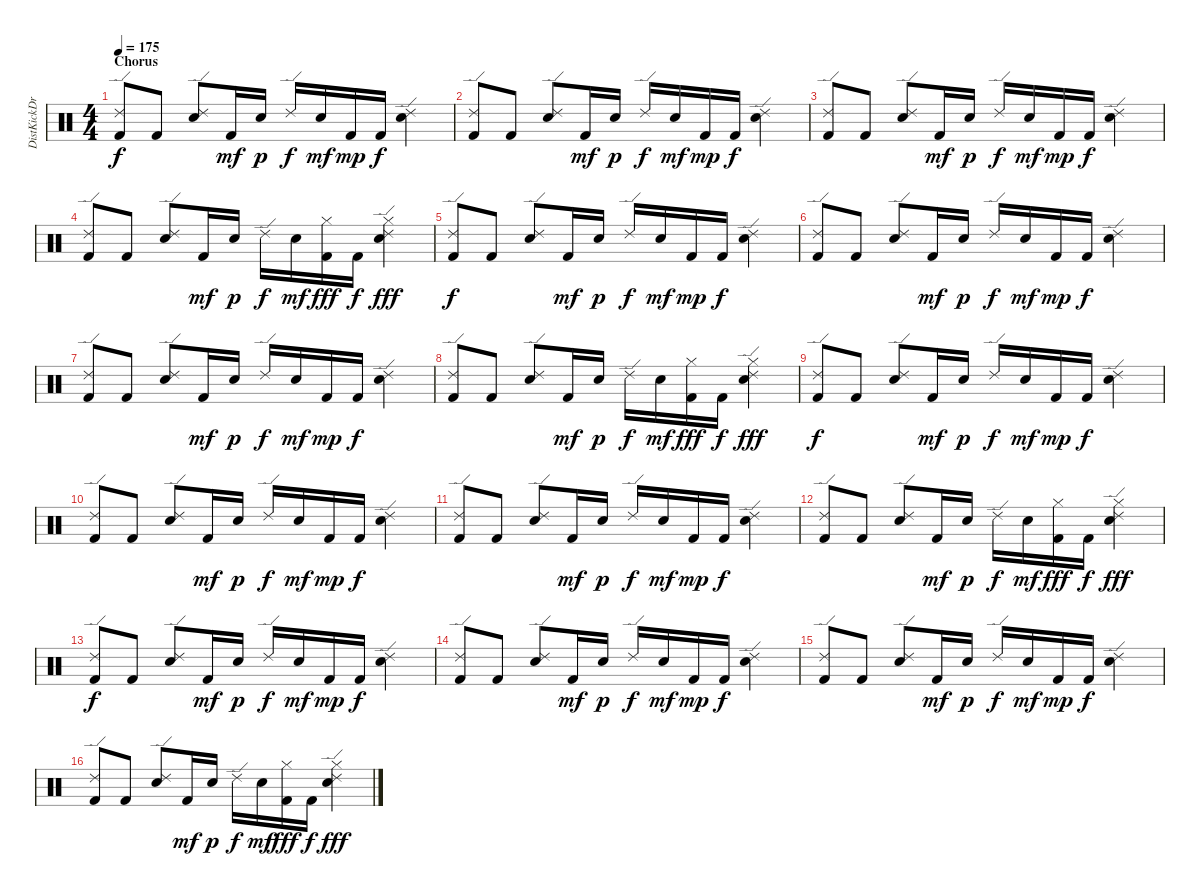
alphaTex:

\track ("DistKickDrums" "DistKickDr") {instrument percussion}
\staff {score}
\articulation defaults
\ts (4 4)
\section ("" "Chorus")
\tempo 175
\clef neutral
\ks c
("Kick (hit) 2" "Ride (edge) 2").8{dy f} "Kick (hit) 2".8 ("Snare (hit) 2" "Ride (edge) 2").8 "Kick (hit) 2".16{dy mf} "Snare (hit) 2".16{dy p} "Ride (edge) 2".16{dy f} "Snare (hit) 2".16{dy mf} "Kick (hit) 2".16{dy mp} "Kick (hit) 2".16{dy f} ("Snare (hit) 2" "Ride (edge) 2").4 |
("Kick (hit) 2" "Ride (edge) 2").8 "Kick (hit) 2".8 ("Snare (hit) 2" "Ride (edge) 2").8 "Kick (hit) 2".16{dy mf} "Snare (hit) 2".16{dy p} "Ride (edge) 2".16{dy f} "Snare (hit) 2".16{dy mf} "Kick (hit) 2".16{dy mp} "Kick (hit) 2".16{dy f} ("Snare (hit) 2" "Ride (edge) 2").4 |
("Kick (hit) 2" "Ride (edge) 2").8 "Kick (hit) 2".8 ("Snare (hit) 2" "Ride (edge) 2").8 "Kick (hit) 2".16{dy mf} "Snare (hit) 2".16{dy p} "Ride (edge) 2".16{dy f} "Snare (hit) 2".16{dy mf} "Kick (hit) 2".16{dy mp} "Kick (hit) 2".16{dy f} ("Snare (hit) 2" "Ride (edge) 2").4 |
("Kick (hit) 2" "Ride (edge) 2").8 "Kick (hit) 2".8 ("Snare (hit) 2" "Ride (edge) 2").8 "Kick (hit) 2".16{dy mf} "Snare (hit) 2".16{dy p} "Ride (edge) 2".16{dy f} "Snare (hit) 2".16{dy mf} ("Kick (hit) 2" "Cowbell high (tip)").16{dy fff} "Kick (hit) 2".16{dy f} ("Snare (hit) 2" "Ride (edge) 2" "Cowbell high (tip)").4{dy fff} |
("Kick (hit) 2" "Ride (edge) 2").8{dy f} "Kick (hit) 2".8 ("Snare (hit) 2" "Ride (edge) 2").8 "Kick (hit) 2".16{dy mf} "Snare (hit) 2".16{dy p} "Ride (edge) 2".16{dy f} "Snare (hit) 2".16{dy mf} "Kick (hit) 2".16{dy mp} "Kick (hit) 2".16{dy f} ("Snare (hit) 2" "Ride (edge) 2").4 |
("Kick (hit) 2" "Ride (edge) 2").8 "Kick (hit) 2".8 ("Snare (hit) 2" "Ride (edge) 2").8 "Kick (hit) 2".16{dy mf} "Snare (hit) 2".16{dy p} "Ride (edge) 2".16{dy f} "Snare (hit) 2".16{dy mf} "Kick (hit) 2".16{dy mp} "Kick (hit) 2".16{dy f} ("Snare (hit) 2" "Ride (edge) 2").4 |
("Kick (hit) 2" "Ride (edge) 2").8 "Kick (hit) 2".8 ("Snare (hit) 2" "Ride (edge) 2").8 "Kick (hit) 2".16{dy mf} "Snare (hit) 2".16{dy p} "Ride (edge) 2".16{dy f} "Snare (hit) 2".16{dy mf} "Kick (hit) 2".16{dy mp} "Kick (hit) 2".16{dy f} ("Snare (hit) 2" "Ride (edge) 2").4 |
("Kick (hit) 2" "Ride (edge) 2").8 "Kick (hit) 2".8 ("Snare (hit) 2" "Ride (edge) 2").8 "Kick (hit) 2".16{dy mf} "Snare (hit) 2".16{dy p} "Ride (edge) 2".16{dy f} "Snare (hit) 2".16{dy mf} ("Kick (hit) 2" "Cowbell high (tip)").16{dy fff} "Kick (hit) 2".16{dy f} ("Snare (hit) 2" "Ride (edge) 2" "Cowbell high (tip)").4{dy fff} |
("Kick (hit) 2" "Ride (edge) 2").8{dy f} "Kick (hit) 2".8 ("Snare (hit) 2" "Ride (edge) 2").8 "Kick (hit) 2".16{dy mf} "Snare (hit) 2".16{dy p} "Ride (edge) 2".16{dy f} "Snare (hit) 2".16{dy mf} "Kick (hit) 2".16{dy mp} "Kick (hit) 2".16{dy f} ("Snare (hit) 2" "Ride (edge) 2").4 |
("Kick (hit) 2" "Ride (edge) 2").8 "Kick (hit) 2".8 ("Snare (hit) 2" "Ride (edge) 2").8 "Kick (hit) 2".16{dy mf} "Snare (hit) 2".16{dy p} "Ride (edge) 2".16{dy f} "Snare (hit) 2".16{dy mf} "Kick (hit) 2".16{dy mp} "Kick (hit) 2".16{dy f} ("Snare (hit) 2" "Ride (edge) 2").4 |
("Kick (hit) 2" "Ride (edge) 2").8 "Kick (hit) 2".8 ("Snare (hit) 2" "Ride (edge) 2").8 "Kick (hit) 2".16{dy mf} "Snare (hit) 2".16{dy p} "Ride (edge) 2".16{dy f} "Snare (hit) 2".16{dy mf} "Kick (hit) 2".16{dy mp} "Kick (hit) 2".16{dy f} ("Snare (hit) 2" "Ride (edge) 2").4 |
("Kick (hit) 2" "Ride (edge) 2").8 "Kick (hit) 2".8 ("Snare (hit) 2" "Ride (edge) 2").8 "Kick (hit) 2".16{dy mf} "Snare (hit) 2".16{dy p} "Ride (edge) 2".16{dy f} "Snare (hit) 2".16{dy mf} ("Kick (hit) 2" "Cowbell high (tip)").16{dy fff} "Kick (hit) 2".16{dy f} ("Snare (hit) 2" "Ride (edge) 2" "Cowbell high (tip)").4{dy fff} |
("Kick (hit) 2" "Ride (edge) 2").8{dy f} "Kick (hit) 2".8 ("Snare (hit) 2" "Ride (edge) 2").8 "Kick (hit) 2".16{dy mf} "Snare (hit) 2".16{dy p} "Ride (edge) 2".16{dy f} "Snare (hit) 2".16{dy mf} "Kick (hit) 2".16{dy mp} "Kick (hit) 2".16{dy f} ("Snare (hit) 2" "Ride (edge) 2").4 |
("Kick (hit) 2" "Ride (edge) 2").8 "Kick (hit) 2".8 ("Snare (hit) 2" "Ride (edge) 2").8 "Kick (hit) 2".16{dy mf} "Snare (hit) 2".16{dy p} "Ride (edge) 2".16{dy f} "Snare (hit) 2".16{dy mf} "Kick (hit) 2".16{dy mp} "Kick (hit) 2".16{dy f} ("Snare (hit) 2" "Ride (edge) 2").4 |
("Kick (hit) 2" "Ride (edge) 2").8 "Kick (hit) 2".8 ("Snare (hit) 2" "Ride (edge) 2").8 "Kick (hit) 2".16{dy mf} "Snare (hit) 2".16{dy p} "Ride (edge) 2".16{dy f} "Snare (hit) 2".16{dy mf} "Kick (hit) 2".16{dy mp} "Kick (hit) 2".16{dy f} ("Snare (hit) 2" "Ride (edge) 2").4 |
("Kick (hit) 2" "Ride (edge) 2").8 "Kick (hit) 2".8 ("Snare (hit) 2" "Ride (edge) 2").8 "Kick (hit) 2".16{dy mf} "Snare (hit) 2".16{dy p} "Ride (edge) 2".16{dy f} "Snare (hit) 2".16{dy mf} ("Kick (hit) 2" "Cowbell high (tip)").16{dy fff} "Kick (hit) 2".16{dy f} ("Snare (hit) 2" "Ride (edge) 2" "Cowbell high (tip)").4{dy fff}
